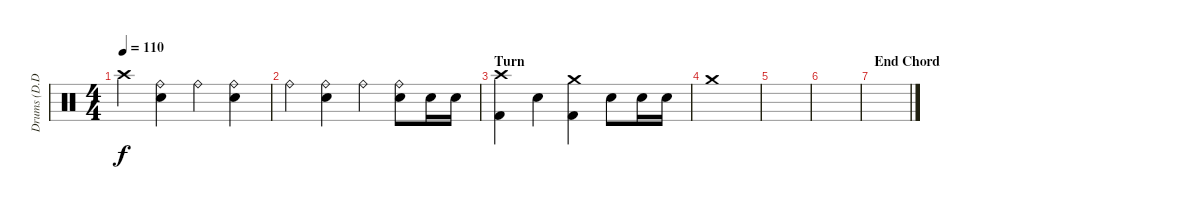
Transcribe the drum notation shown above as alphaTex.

\track ("Drums (D.D. Bucco)" "Drums (D.D") {instrument percussion}
\staff {score}
\articulation defaults
\ts (4 4)
\tempo 110
\clef neutral
\ks c "Crash high (hit)".4{dy f}
("Ride (bell)" "Snare (hit) 2").4 "Ride (bell)".4 ("Ride (bell)" "Snare (hit) 2").4 |
"Ride (bell)".4 ("Ride (bell)" "Snare (hit) 2").4 "Ride (bell)".4 ("Ride (bell)" "Snare (hit) 2").8 "Snare (hit) 2".16 "Snare (hit) 2".16 |
\section ("" "Turn")
("Crash high (hit)" "Kick (hit) 2").4 "Snare (hit) 2".4 ("Crash medium (hit)" "Kick (hit) 2").4 "Snare (hit) 2".8 "Snare (hit) 2".16 "Snare (hit) 2".16 |
"Crash medium (hit)".1 |
\section ("" "")
|
|
\section ("" "End Chord")
